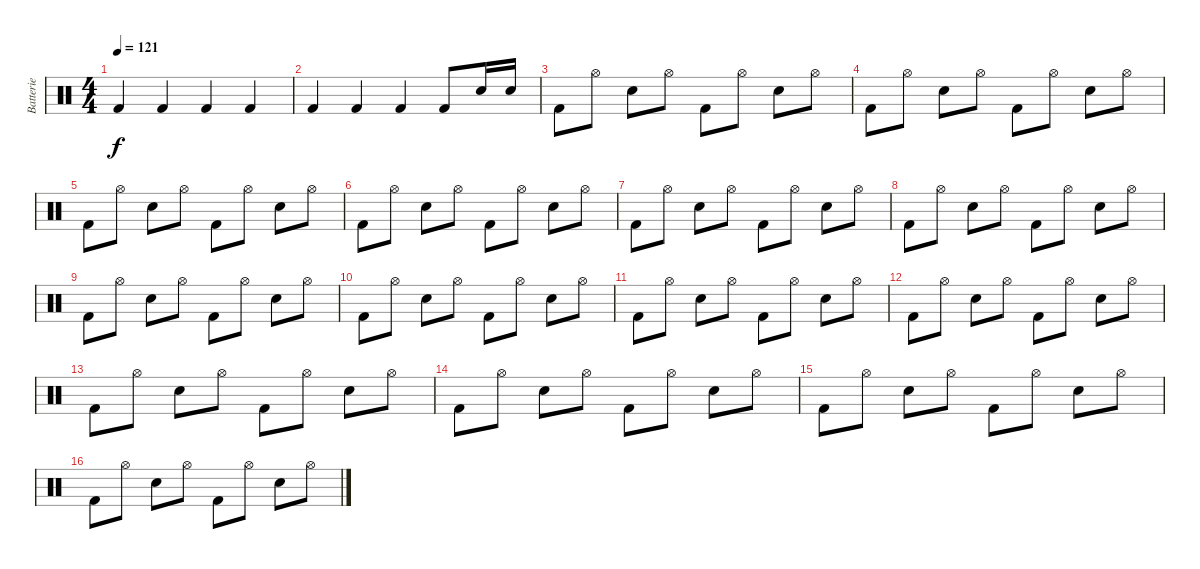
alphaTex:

\track ("Batterie" "Batterie") {instrument percussion}
\staff {score}
\articulation defaults
\ts (4 4)
\tempo 121
\clef neutral
\ks c "Kick (hit) 2".4{dy f} "Kick (hit) 2".4 "Kick (hit) 2".4 "Kick (hit) 2".4
|
"Kick (hit) 2".4 "Kick (hit) 2".4 "Kick (hit) 2".4 "Kick (hit) 2".8 "Electric Snare (hit)".16 "Electric Snare (hit)".16 |
"Kick (hit) 2".8 "Hi-Hat (open)".8 "Snare (hit) 2".8 "Hi-Hat (open)".8 "Kick (hit) 2".8 "Hi-Hat (open)".8 "Snare (hit) 2".8 "Hi-Hat (open)".8 |
"Kick (hit) 2".8 "Hi-Hat (open)".8 "Snare (hit) 2".8 "Hi-Hat (open)".8 "Kick (hit) 2".8 "Hi-Hat (open)".8 "Snare (hit) 2".8 "Hi-Hat (open)".8 |
"Kick (hit) 2".8 "Hi-Hat (open)".8 "Snare (hit) 2".8 "Hi-Hat (open)".8 "Kick (hit) 2".8 "Hi-Hat (open)".8 "Snare (hit) 2".8 "Hi-Hat (open)".8 |
"Kick (hit) 2".8 "Hi-Hat (open)".8 "Snare (hit) 2".8 "Hi-Hat (open)".8 "Kick (hit) 2".8 "Hi-Hat (open)".8 "Snare (hit) 2".8 "Hi-Hat (open)".8 |
"Kick (hit) 2".8 "Hi-Hat (open)".8 "Snare (hit) 2".8 "Hi-Hat (open)".8 "Kick (hit) 2".8 "Hi-Hat (open)".8 "Snare (hit) 2".8 "Hi-Hat (open)".8 |
"Kick (hit) 2".8 "Hi-Hat (open)".8 "Snare (hit) 2".8 "Hi-Hat (open)".8 "Kick (hit) 2".8 "Hi-Hat (open)".8 "Snare (hit) 2".8 "Hi-Hat (open)".8 |
"Kick (hit) 2".8 "Hi-Hat (open)".8 "Snare (hit) 2".8 "Hi-Hat (open)".8 "Kick (hit) 2".8 "Hi-Hat (open)".8 "Snare (hit) 2".8 "Hi-Hat (open)".8 |
"Kick (hit) 2".8 "Hi-Hat (open)".8 "Snare (hit) 2".8 "Hi-Hat (open)".8 "Kick (hit) 2".8 "Hi-Hat (open)".8 "Snare (hit) 2".8 "Hi-Hat (open)".8 |
"Kick (hit) 2".8 "Hi-Hat (open)".8 "Snare (hit) 2".8 "Hi-Hat (open)".8 "Kick (hit) 2".8 "Hi-Hat (open)".8 "Snare (hit) 2".8 "Hi-Hat (open)".8 |
"Kick (hit) 2".8 "Hi-Hat (open)".8 "Snare (hit) 2".8 "Hi-Hat (open)".8 "Kick (hit) 2".8 "Hi-Hat (open)".8 "Snare (hit) 2".8 "Hi-Hat (open)".8 |
"Kick (hit) 2".8 "Hi-Hat (open)".8 "Snare (hit) 2".8 "Hi-Hat (open)".8 "Kick (hit) 2".8 "Hi-Hat (open)".8 "Snare (hit) 2".8 "Hi-Hat (open)".8 |
"Kick (hit) 2".8 "Hi-Hat (open)".8 "Snare (hit) 2".8 "Hi-Hat (open)".8 "Kick (hit) 2".8 "Hi-Hat (open)".8 "Snare (hit) 2".8 "Hi-Hat (open)".8 |
"Kick (hit) 2".8 "Hi-Hat (open)".8 "Snare (hit) 2".8 "Hi-Hat (open)".8 "Kick (hit) 2".8 "Hi-Hat (open)".8 "Snare (hit) 2".8 "Hi-Hat (open)".8 |
"Kick (hit) 2".8 "Hi-Hat (open)".8 "Snare (hit) 2".8 "Hi-Hat (open)".8 "Kick (hit) 2".8 "Hi-Hat (open)".8 "Snare (hit) 2".8 "Hi-Hat (open)".8
